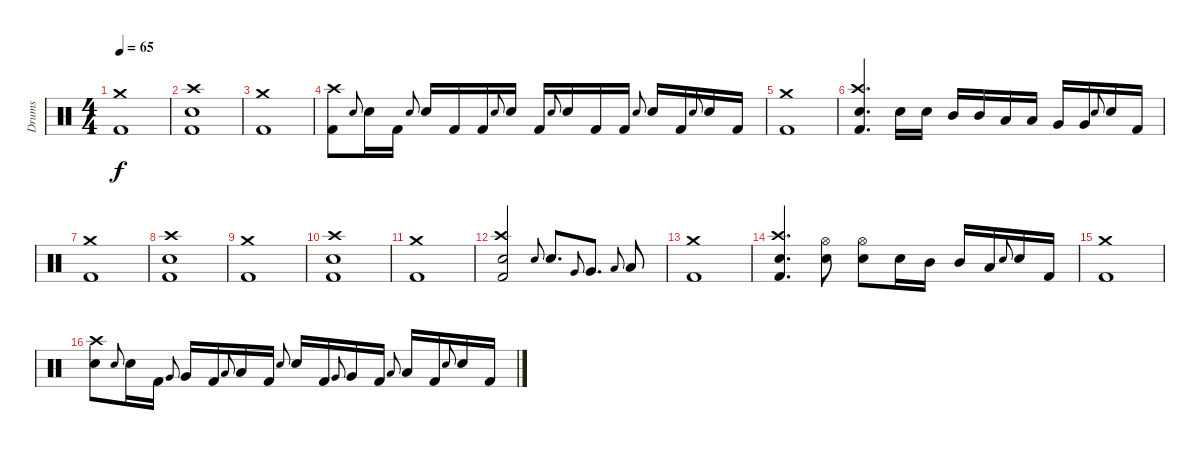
\track ("Drums" "Drums") {instrument percussion}
\staff {score}
\articulation defaults
\ts (4 4)
\tempo 65
\clef neutral
\ks c
("Crash medium (hit)" "Kick (hit) 2").1{dy f} |
("Crash high (hit)" "Electric Snare (hit)" "Kick (hit) 2").1 |
("Crash medium (hit)" "Kick (hit) 2").1 |
("Crash high (hit)" "Kick (hit) 2").8 "Electric Snare (hit)".8{gr onbeat} "Electric Snare (hit)".16 "Kick (hit) 2".16 "Electric Snare (hit)".8{gr onbeat} "Electric Snare (hit)".16 "Kick (hit) 2".16 "Kick (hit) 2".16 "Electric Snare (hit)".8{gr onbeat} "Electric Snare (hit)".16 "Kick (hit) 2".16 "Electric Snare (hit)".8{gr onbeat} "Electric Snare (hit)".16 "Kick (hit) 2".16 "Kick (hit) 2".16 "Electric Snare (hit)".8{gr onbeat} "Electric Snare (hit)".16 "Kick (hit) 2".16 "Electric Snare (hit)".8{gr onbeat} "Electric Snare (hit)".16 "Kick (hit) 2".16 |
("Crash medium (hit)" "Kick (hit) 2").1 |
("Crash high (hit)" "Electric Snare (hit)" "Kick (hit) 2").4{d} "Electric Snare (hit)".16 "Electric Snare (hit)".16 "Mid Tom (hit)".16 "Mid Tom (hit)".16 "Low Tom (hit)".16 "Low Tom (hit)".16 "Very Low Tom (hit)".16 "Very Low Tom (hit)".16 "Electric Snare (hit)".8{gr onbeat} "Electric Snare (hit)".16 "Kick (hit) 2".16 |
("Crash medium (hit)" "Kick (hit) 2").1 |
("Crash high (hit)" "Electric Snare (hit)" "Kick (hit) 2").1 |
("Crash medium (hit)" "Kick (hit) 2").1 |
("Crash high (hit)" "Electric Snare (hit)" "Kick (hit) 2").1 |
("Crash medium (hit)" "Kick (hit) 2").1 |
("Crash high (hit)" "Electric Snare (hit)" "Kick (hit) 2").2 "Electric Snare (hit)".8{gr onbeat} "Electric Snare (hit)".8{d} "Very Low Tom (hit)".8{gr onbeat} "Very Low Tom (hit)".8{d} "Low Floor Tom (hit)".8{gr onbeat} "Low Floor Tom (hit)".8 |
("Crash medium (hit)" "Kick (hit) 2").1 |
("Crash high (hit)" "Electric Snare (hit)" "Kick (hit) 2").4{d} ("Hi-Hat (open)" "Electric Snare (hit)").8 ("Hi-Hat (open)" "Electric Snare (hit)").8 "Electric Snare (hit)".16 "Mid Tom (hit)".16 "Mid Tom (hit)".16 "Low Tom (hit)".16 "Electric Snare (hit)".8{gr onbeat} "Electric Snare (hit)".16 "Kick (hit) 2".16 |
("Crash medium (hit)" "Kick (hit) 2").1 |
("Crash high (hit)" "Electric Snare (hit)").8 "Electric Snare (hit)".8{gr onbeat} "Electric Snare (hit)".16 "Kick (hit) 2".16 "Very Low Tom (hit)".8{gr onbeat} "Very Low Tom (hit)".16 "Kick (hit) 2".16 "Low Floor Tom (hit)".8{gr onbeat} "Low Floor Tom (hit)".16 "Kick (hit) 2".16 "Electric Snare (hit)".8{gr onbeat} "Electric Snare (hit)".16 "Kick (hit) 2".16 "Very Low Tom (hit)".8{gr onbeat} "Very Low Tom (hit)".16 "Kick (hit) 2".16 "Low Floor Tom (hit)".8{gr onbeat} "Low Floor Tom (hit)".16 "Kick (hit) 2".16 "Electric Snare (hit)".8{gr onbeat} "Electric Snare (hit)".16 "Kick (hit) 2".16
